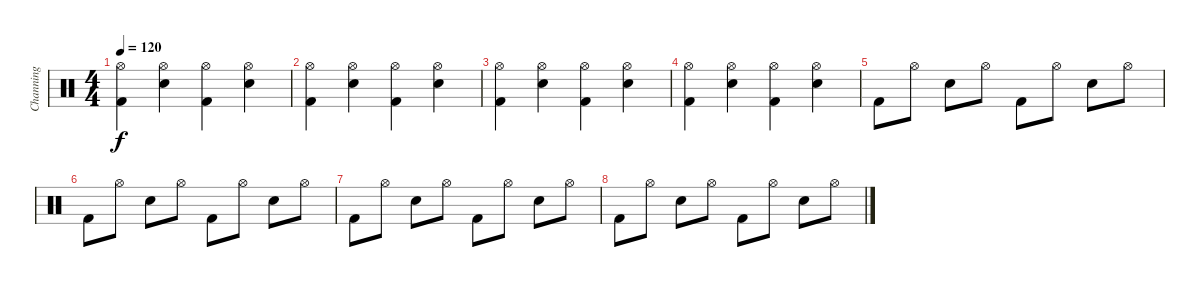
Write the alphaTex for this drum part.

\track ("Channing" "Channing") {instrument percussion}
\staff {score}
\articulation defaults
\ts (4 4)
\tempo 120
\clef neutral
\ks c
("Hi-Hat (open)" "Kick (hit) 2").4{dy f} ("Hi-Hat (open)" "Snare (hit) 2").4 ("Hi-Hat (open)" "Kick (hit) 2").4 ("Hi-Hat (open)" "Snare (hit) 2").4 |
("Hi-Hat (open)" "Kick (hit) 2").4 ("Hi-Hat (open)" "Snare (hit) 2").4 ("Hi-Hat (open)" "Kick (hit) 2").4 ("Hi-Hat (open)" "Snare (hit) 2").4 |
("Hi-Hat (open)" "Kick (hit) 2").4 ("Hi-Hat (open)" "Snare (hit) 2").4 ("Hi-Hat (open)" "Kick (hit) 2").4 ("Hi-Hat (open)" "Snare (hit) 2").4 |
("Hi-Hat (open)" "Kick (hit) 2").4 ("Hi-Hat (open)" "Snare (hit) 2").4 ("Hi-Hat (open)" "Kick (hit) 2").4 ("Hi-Hat (open)" "Snare (hit) 2").4 |
"Kick (hit) 2".8 "Hi-Hat (open)".8 "Snare (hit) 2".8 "Hi-Hat (open)".8 "Kick (hit) 2".8 "Hi-Hat (open)".8 "Snare (hit) 2".8 "Hi-Hat (open)".8 |
"Kick (hit) 2".8 "Hi-Hat (open)".8 "Snare (hit) 2".8 "Hi-Hat (open)".8 "Kick (hit) 2".8 "Hi-Hat (open)".8 "Snare (hit) 2".8 "Hi-Hat (open)".8 |
"Kick (hit) 2".8 "Hi-Hat (open)".8 "Snare (hit) 2".8 "Hi-Hat (open)".8 "Kick (hit) 2".8 "Hi-Hat (open)".8 "Snare (hit) 2".8 "Hi-Hat (open)".8 |
"Kick (hit) 2".8 "Hi-Hat (open)".8 "Snare (hit) 2".8 "Hi-Hat (open)".8 "Kick (hit) 2".8 "Hi-Hat (open)".8 "Snare (hit) 2".8 "Hi-Hat (open)".8
